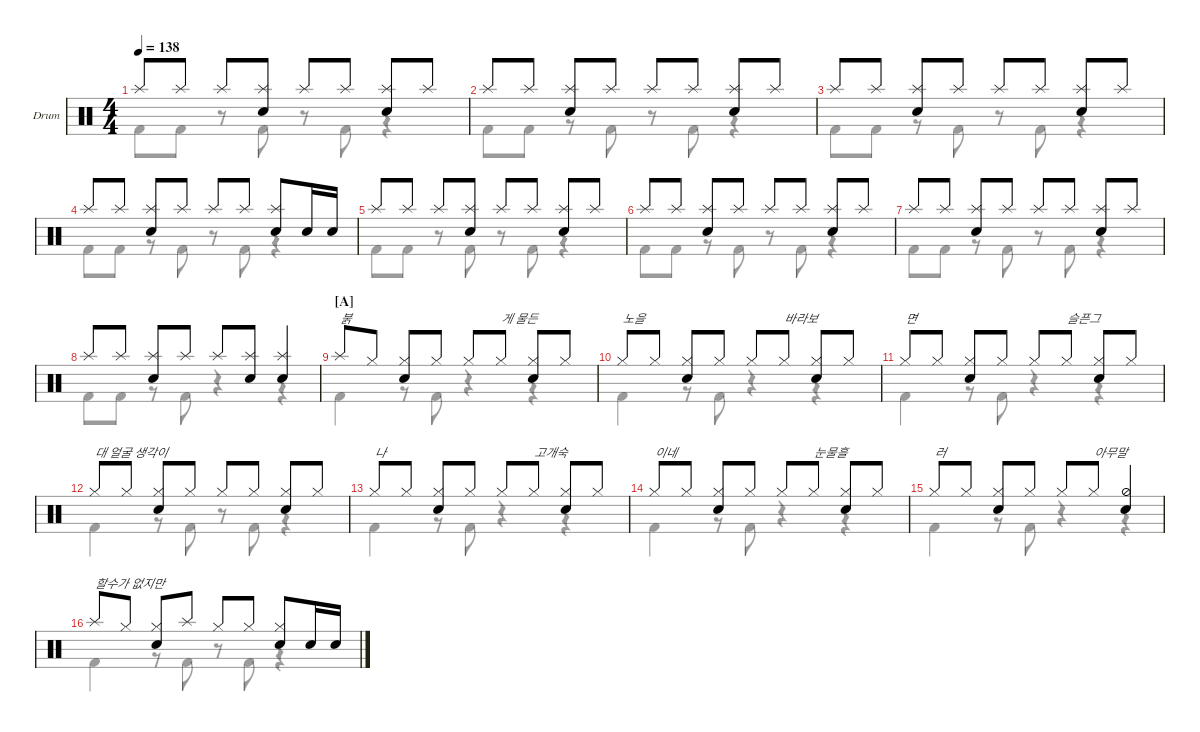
\defaultSystemsLayout 4
\hideDynamics
\bracketExtendMode nobrackets
\firstSystemTrackNameOrientation horizontal
\track ("Drumkit" "Drum") {instrument percussion}
\staff {score}
\articulation defaults
\voice
\ts (4 4)
\tempo 138
\clef neutral
\ks c "Splash (hit)".8{dy mf beam Up} "Splash (hit)".8{beam Up} "Splash (hit)".8{beam Up}
("Splash (hit)" "Snare (hit) 2").8{beam Up} "Splash (hit)".8{beam Up} "Splash (hit)".8{beam Up} ("Splash (hit)" "Snare (hit) 2").8{beam Up} "Splash (hit)".8{beam Up} |
"Splash (hit)".8{beam Up} "Splash (hit)".8{beam Up} ("Splash (hit)" "Snare (hit) 2").8{beam Up} "Splash (hit)".8{beam Up} "Splash (hit)".8{beam Up} "Splash (hit)".8{beam Up} ("Splash (hit)" "Snare (hit) 2").8{beam Up} "Splash (hit)".8{beam Up} |
"Splash (hit)".8{beam Up} "Splash (hit)".8{beam Up} ("Splash (hit)" "Snare (hit) 2").8{beam Up} "Splash (hit)".8{beam Up} "Splash (hit)".8{beam Up} "Splash (hit)".8{beam Up} ("Splash (hit)" "Snare (hit) 2").8{beam Up} "Splash (hit)".8{beam Up} |
"Splash (hit)".8{beam Up} "Splash (hit)".8{beam Up} ("Splash (hit)" "Snare (hit) 2").8{beam Up} "Splash (hit)".8{beam Up} "Splash (hit)".8{beam Up} "Splash (hit)".8{beam Up} ("Splash (hit)" "Snare (hit) 2").8{beam Up} "Snare (hit) 2".16{beam Up} "Snare (hit) 2".16{beam Up} |
"Splash (hit)".8{beam Up} "Splash (hit)".8{beam Up} "Splash (hit)".8{beam Up} ("Splash (hit)" "Snare (hit) 2").8{beam Up} "Splash (hit)".8{beam Up} "Splash (hit)".8{beam Up} ("Splash (hit)" "Snare (hit) 2").8{beam Up} "Splash (hit)".8{beam Up} |
"Splash (hit)".8{beam Up} "Splash (hit)".8{beam Up} ("Splash (hit)" "Snare (hit) 2").8{beam Up} "Splash (hit)".8{beam Up} "Splash (hit)".8{beam Up} "Splash (hit)".8{beam Up} ("Splash (hit)" "Snare (hit) 2").8{beam Up} "Splash (hit)".8{beam Up} |
"Splash (hit)".8{beam Up} "Splash (hit)".8{beam Up} ("Splash (hit)" "Snare (hit) 2").8{beam Up} "Splash (hit)".8{beam Up} "Splash (hit)".8{beam Up} "Splash (hit)".8{beam Up} ("Splash (hit)" "Snare (hit) 2").8{beam Up} "Splash (hit)".8{beam Up} |
"Splash (hit)".8{beam Up} "Splash (hit)".8{beam Up} ("Splash (hit)" "Snare (hit) 2").8{beam Up} "Splash (hit)".8{beam Up} "Splash (hit)".8{beam Up} ("Splash (hit)" "Snare (hit) 2").8{beam Up} ("Splash (hit)" "Snare (hit) 2").4{beam Up} |
\section ("A" "")
"Splash (hit)".8{txt "붉" beam Up} "Hi-Hat (closed)".8{beam Up} ("Hi-Hat (closed)" "Snare (hit) 2").8{beam Up} "Hi-Hat (closed)".8{beam Up} "Hi-Hat (closed)".8{beam Up} "Hi-Hat (closed)".8{txt "게 물든" beam Up} ("Hi-Hat (closed)" "Snare (hit) 2").8{beam Up} "Hi-Hat (closed)".8{beam Up} |
"Hi-Hat (closed)".8{txt "노을" beam Up} "Hi-Hat (closed)".8{beam Up} ("Hi-Hat (closed)" "Snare (hit) 2").8{beam Up} "Hi-Hat (closed)".8{beam Up} "Hi-Hat (closed)".8{beam Up} "Hi-Hat (closed)".8{txt "바라보" beam Up} ("Hi-Hat (closed)" "Snare (hit) 2").8{beam Up} "Hi-Hat (closed)".8{beam Up} |
"Hi-Hat (closed)".8{txt "면" beam Up} "Hi-Hat (closed)".8{beam Up} ("Hi-Hat (closed)" "Snare (hit) 2").8{beam Up} "Hi-Hat (closed)".8{beam Up} "Hi-Hat (closed)".8{beam Up} "Hi-Hat (closed)".8{txt "슬픈그" beam Up} ("Hi-Hat (closed)" "Snare (hit) 2").8{beam Up} "Hi-Hat (closed)".8{beam Up} |
"Hi-Hat (closed)".8{txt "대 얼굴 생각이" beam Up} "Hi-Hat (closed)".8{beam Up} ("Hi-Hat (closed)" "Snare (hit) 2").8{beam Up} "Hi-Hat (closed)".8{beam Up} "Hi-Hat (closed)".8{beam Up} "Hi-Hat (closed)".8{beam Up} ("Hi-Hat (closed)" "Snare (hit) 2").8{beam Up} "Hi-Hat (closed)".8{beam Up} |
"Hi-Hat (closed)".8{txt "나" beam Up} "Hi-Hat (closed)".8{beam Up} ("Hi-Hat (closed)" "Snare (hit) 2").8{beam Up} "Hi-Hat (closed)".8{beam Up} "Hi-Hat (closed)".8{beam Up} "Hi-Hat (closed)".8{txt "고개숙" beam Up} ("Hi-Hat (closed)" "Snare (hit) 2").8{beam Up} "Hi-Hat (closed)".8{beam Up} |
"Hi-Hat (closed)".8{txt "이네" beam Up} "Hi-Hat (closed)".8{beam Up} ("Hi-Hat (closed)" "Snare (hit) 2").8{beam Up} "Hi-Hat (closed)".8{beam Up} "Hi-Hat (closed)".8{beam Up} "Hi-Hat (closed)".8{txt "눈물흘" beam Up} ("Hi-Hat (closed)" "Snare (hit) 2").8{beam Up} "Hi-Hat (closed)".8{beam Up} |
"Hi-Hat (closed)".8{txt "러" beam Up} "Hi-Hat (closed)".8{beam Up} ("Hi-Hat (closed)" "Snare (hit) 2").8{beam Up} "Hi-Hat (closed)".8{beam Up} "Hi-Hat (closed)".8{beam Up} "Hi-Hat (closed)".8{txt "아무말" beam Up} ("Hi-Hat (half)" "Snare (hit) 2").4{beam Up} |
"Splash (hit)".8{txt "할수가 없지만" beam Up} "Hi-Hat (closed)".8{beam Up} ("Hi-Hat (closed)" "Snare (hit) 2").8{beam Up} "Splash (hit)".8{beam Up} "Hi-Hat (closed)".8{beam Up} "Hi-Hat (closed)".8{beam Up} ("Hi-Hat (closed)" "Snare (hit) 2").8{beam Up} "Snare (hit) 2".16{beam Up} "Snare (hit) 2".16{beam Up}
\voice
\clef neutral
\ottava regular
\simile none
\ks c
|
|
|
|
|
|
|
|
|
|
|
|
|
|
|
\voice
\clef neutral
\ottava regular
\simile none
\ks c "Kick (hit) 2".8{dy mf beam Down} "Kick (hit) 2".8{beam Down}
r.8{beam Down} "Kick (hit) 2".8{beam Down} r.8{beam Down} "Kick (hit) 2".8{beam Down} r.4{beam Down} |
"Kick (hit) 2".8{beam Down} "Kick (hit) 2".8{beam Down} r.8{beam Down} "Kick (hit) 2".8{beam Down} r.8{beam Down} "Kick (hit) 2".8{beam Down} r.4{beam Down} |
"Kick (hit) 2".8{beam Down} "Kick (hit) 2".8{beam Down} r.8{beam Down} "Kick (hit) 2".8{beam Down} r.8{beam Down} "Kick (hit) 2".8{beam Down} r.4{beam Down} |
"Kick (hit) 2".8{beam Down} "Kick (hit) 2".8{beam Down} r.8{beam Down} "Kick (hit) 2".8{beam Down} r.8{beam Down} "Kick (hit) 2".8{beam Down} r.4{beam Down} |
"Kick (hit) 2".8{beam Down} "Kick (hit) 2".8{beam Down} r.8{beam Down} "Kick (hit) 2".8{beam Down} r.8{beam Down} "Kick (hit) 2".8{beam Down} r.4{beam Down} |
"Kick (hit) 2".8{beam Down} "Kick (hit) 2".8{beam Down} r.8{beam Down} "Kick (hit) 2".8{beam Down} r.8{beam Down} "Kick (hit) 2".8{beam Down} r.4{beam Down} |
"Kick (hit) 2".8{beam Down} "Kick (hit) 2".8{beam Down} r.8{beam Down} "Kick (hit) 2".8{beam Down} r.8{beam Down} "Kick (hit) 2".8{beam Down} r.4{beam Down} |
"Kick (hit) 2".8{beam Down} "Kick (hit) 2".8{beam Down} r.8{beam Down} "Kick (hit) 2".8{beam Down} r.4{beam Down} r.4{beam Down} |
"Kick (hit) 2".4{beam Down} r.8{beam Down} "Kick (hit) 2".8{beam Down} r.4{beam Down} r.4{beam Down} |
"Kick (hit) 2".4{beam Down} r.8{beam Down} "Kick (hit) 2".8{beam Down} r.4{beam Down} r.4{beam Down} |
"Kick (hit) 2".4{beam Down} r.8{beam Down} "Kick (hit) 2".8{beam Down} r.4{beam Down} r.4{beam Down} |
"Kick (hit) 2".4{beam Down} r.8{beam Down} "Kick (hit) 2".8{beam Down} r.8{beam Down} "Kick (hit) 2".8{beam Down} r.4{beam Down} |
"Kick (hit) 2".4{beam Down} r.8{beam Down} "Kick (hit) 2".8{beam Down} r.4{beam Down} r.4{beam Down} |
"Kick (hit) 2".4{beam Down} r.8{beam Down} "Kick (hit) 2".8{beam Down} r.4{beam Down} r.4{beam Down} |
"Kick (hit) 2".4{beam Down} r.8{beam Down} "Kick (hit) 2".8{beam Down} r.4{beam Down} r.4{beam Down} |
"Kick (hit) 2".4{beam Down} r.8{beam Down} "Kick (hit) 2".8{beam Down} r.8{beam Down} "Kick (hit) 2".8{beam Down} r.4{beam Down}
